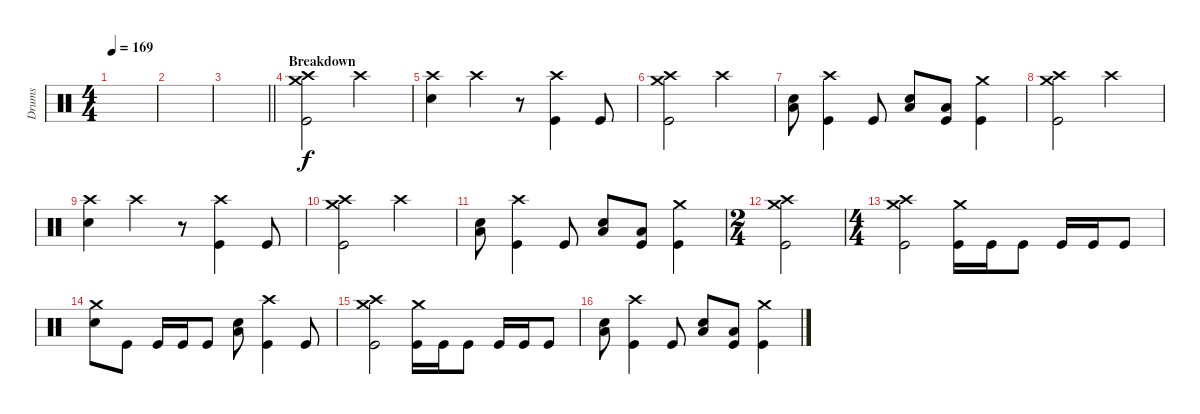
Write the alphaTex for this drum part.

\track ("Drums" "Drums") {instrument percussion}
\staff {score}
\articulation defaults
\ts (4 4)
\tempo 169
\clef neutral
\ks c
|
|
\barLineRight lightlight
|
\section ("" "Breakdown")
("Crash medium (hit)" "Crash high (hit)" "Kick (hit)").2 "Crash high (hit)".2 |
("Crash high (hit)" "Snare (hit) 2").4 "Crash high (hit)".4 r.8 ("Crash high (hit)" "Kick (hit)").4 "Kick (hit)".8 |
("Crash medium (hit)" "Crash high (hit)" "Kick (hit)").2 "Crash high (hit)".2 |
("Snare (hit) 2" "Low Tom (hit)").8 ("Crash high (hit)" "Kick (hit)").4 "Kick (hit)".8 ("Snare (hit) 2" "Low Tom (hit)").8 ("Low Tom (hit)" "Kick (hit)").8 ("Crash medium (hit)" "Kick (hit)").4 |
("Crash medium (hit)" "Crash high (hit)" "Kick (hit)").2 "Crash high (hit)".2 |
("Crash high (hit)" "Snare (hit) 2").4 "Crash high (hit)".4 r.8 ("Crash high (hit)" "Kick (hit)").4 "Kick (hit)".8 |
("Crash medium (hit)" "Crash high (hit)" "Kick (hit)").2 "Crash high (hit)".2 |
("Snare (hit) 2" "Low Tom (hit)").8 ("Crash high (hit)" "Kick (hit)").4 "Kick (hit)".8 ("Snare (hit) 2" "Low Tom (hit)").8 ("Low Tom (hit)" "Kick (hit)").8 ("Crash medium (hit)" "Kick (hit)").4 |
\ts (2 4)
("Crash medium (hit)" "Crash high (hit)" "Kick (hit)").2 |
\ts (4 4)
("Crash medium (hit)" "Crash high (hit)" "Kick (hit)").2 ("Crash medium (hit)" "Kick (hit)").16 "Kick (hit)".16 "Kick (hit)".8 "Kick (hit)".16 "Kick (hit)".16 "Kick (hit)".8 |
("Crash medium (hit)" "Snare (hit) 2").8 "Kick (hit)".8 "Kick (hit)".16 "Kick (hit)".16 "Kick (hit)".8 ("Snare (hit) 2" "Low Tom (hit)").8 ("Crash high (hit)" "Kick (hit)").4 "Kick (hit)".8 |
("Crash medium (hit)" "Crash high (hit)" "Kick (hit)").2 ("Crash medium (hit)" "Kick (hit)").16 "Kick (hit)".16 "Kick (hit)".8 "Kick (hit)".16 "Kick (hit)".16 "Kick (hit)".8 |
("Snare (hit) 2" "Low Tom (hit)").8 ("Crash high (hit)" "Kick (hit)").4 "Kick (hit)".8 ("Snare (hit) 2" "Low Tom (hit)").8 ("Low Tom (hit)" "Kick (hit)").8 ("Crash medium (hit)" "Kick (hit)").4
